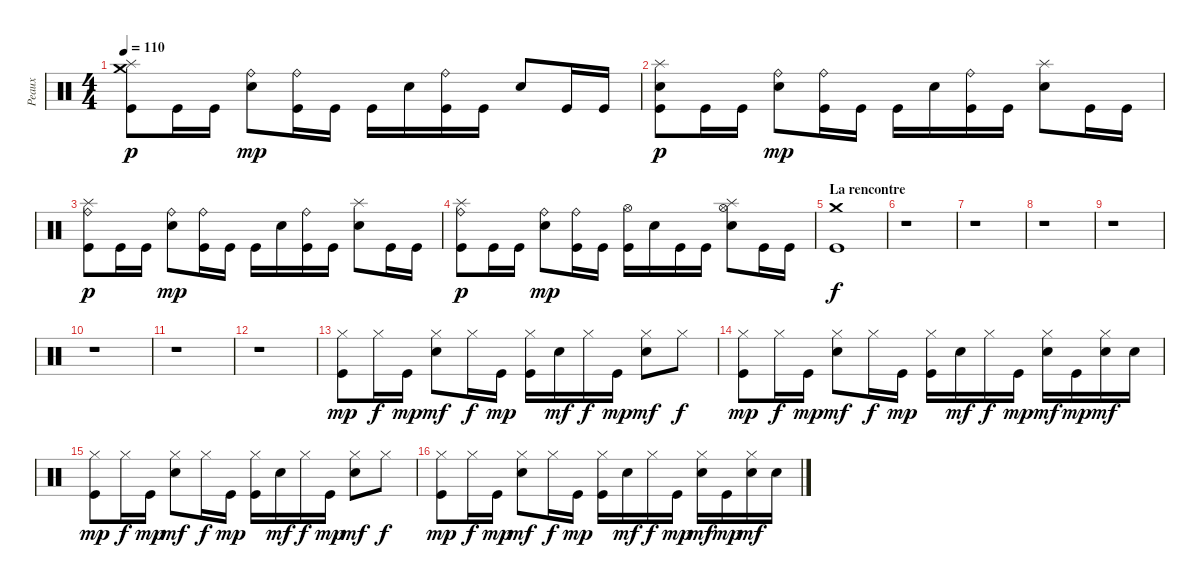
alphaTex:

\track ("Peaux" "Peaux") {instrument percussion}
\staff {score}
\articulation defaults
\ts (4 4)
\tempo 110
\clef neutral
\ks c
("Crash medium (hit)" "Splash (hit)" "Kick (hit)").8{dy p} "Kick (hit)".16 "Kick (hit)".16 ("Ride (bell)" "Snare (hit) 2").8{dy mp} ("Ride (bell)" "Kick (hit)").16 "Kick (hit)".16 "Kick (hit)".16 "Snare (hit) 2".16 ("Ride (bell)" "Kick (hit)").16 "Kick (hit)".16 "Snare (hit) 2".8 "Kick (hit)".16 "Kick (hit)".16 |
("Splash (hit)" "Snare (hit) 2" "Kick (hit)").8{dy p} "Kick (hit)".16 "Kick (hit)".16 ("Ride (bell)" "Snare (hit) 2").8{dy mp} ("Ride (bell)" "Kick (hit)").16 "Kick (hit)".16 "Kick (hit)".16 "Snare (hit) 2".16 ("Ride (bell)" "Kick (hit)").16 "Kick (hit)".16 ("Splash (hit)" "Snare (hit) 2").8 "Kick (hit)".16 "Kick (hit)".16 |
("Splash (hit)" "Ride (bell)" "Kick (hit)").8{dy p} "Kick (hit)".16 "Kick (hit)".16 ("Ride (bell)" "Snare (hit) 2").8{dy mp} ("Ride (bell)" "Kick (hit)").16 "Kick (hit)".16 "Kick (hit)".16 "Snare (hit) 2".16 ("Ride (bell)" "Kick (hit)").16 "Kick (hit)".16 ("Splash (hit)" "Snare (hit) 2").8 "Kick (hit)".16 "Kick (hit)".16 |
("Splash (hit)" "Ride (bell)" "Kick (hit)").8{dy p} "Kick (hit)".16 "Kick (hit)".16 ("Ride (bell)" "Snare (hit) 2").8{dy mp} ("Ride (bell)" "Kick (hit)").16 "Kick (hit)".16 ("Hi-Hat (open)" "Kick (hit)").16 "Snare (hit) 2".16 "Kick (hit)".16 "Kick (hit)".16 ("Splash (hit)" "Hi-Hat (open)" "Snare (hit) 2").8 "Kick (hit)".16 "Kick (hit)".16 |
\section ("" "La rencontre")
("Crash medium (hit)" "Kick (hit)").1{dy f} |
r.1 |
r.1 |
r.1 |
r.1 |
r.1 |
r.1 |
r.1 |
("Hi-Hat (closed)" "Kick (hit)").8{dy mp} "Hi-Hat (closed)".16{dy f} "Kick (hit)".16{dy mp} ("Hi-Hat (closed)" "Snare (hit) 2").8{dy mf} "Hi-Hat (closed)".16{dy f} "Kick (hit)".16{dy mp} ("Hi-Hat (closed)" "Kick (hit)").16 "Snare (hit) 2".16{dy mf} "Hi-Hat (closed)".16{dy f} "Kick (hit)".16{dy mp} ("Hi-Hat (closed)" "Snare (hit) 2").8{dy mf} "Hi-Hat (closed)".8{dy f} |
("Hi-Hat (closed)" "Kick (hit)").8{dy mp} "Hi-Hat (closed)".16{dy f} "Kick (hit)".16{dy mp} ("Hi-Hat (closed)" "Snare (hit) 2").8{dy mf} "Hi-Hat (closed)".16{dy f} "Kick (hit)".16{dy mp} ("Hi-Hat (closed)" "Kick (hit)").16 "Snare (hit) 2".16{dy mf} "Hi-Hat (closed)".16{dy f} "Kick (hit)".16{dy mp} ("Hi-Hat (closed)" "Snare (hit) 2").16{dy mf} "Kick (hit)".16{dy mp} ("Hi-Hat (closed)" "Snare (hit) 2").16{dy mf} "Snare (hit) 2".16 |
("Hi-Hat (closed)" "Kick (hit)").8{dy mp} "Hi-Hat (closed)".16{dy f} "Kick (hit)".16{dy mp} ("Hi-Hat (closed)" "Snare (hit) 2").8{dy mf} "Hi-Hat (closed)".16{dy f} "Kick (hit)".16{dy mp} ("Hi-Hat (closed)" "Kick (hit)").16 "Snare (hit) 2".16{dy mf} "Hi-Hat (closed)".16{dy f} "Kick (hit)".16{dy mp} ("Hi-Hat (closed)" "Snare (hit) 2").8{dy mf} "Hi-Hat (closed)".8{dy f} |
("Hi-Hat (closed)" "Kick (hit)").8{dy mp} "Hi-Hat (closed)".16{dy f} "Kick (hit)".16{dy mp} ("Hi-Hat (closed)" "Snare (hit) 2").8{dy mf} "Hi-Hat (closed)".16{dy f} "Kick (hit)".16{dy mp} ("Hi-Hat (closed)" "Kick (hit)").16 "Snare (hit) 2".16{dy mf} "Hi-Hat (closed)".16{dy f} "Kick (hit)".16{dy mp} ("Hi-Hat (closed)" "Snare (hit) 2").16{dy mf} "Kick (hit)".16{dy mp} ("Hi-Hat (closed)" "Snare (hit) 2").16{dy mf} "Snare (hit) 2".16
